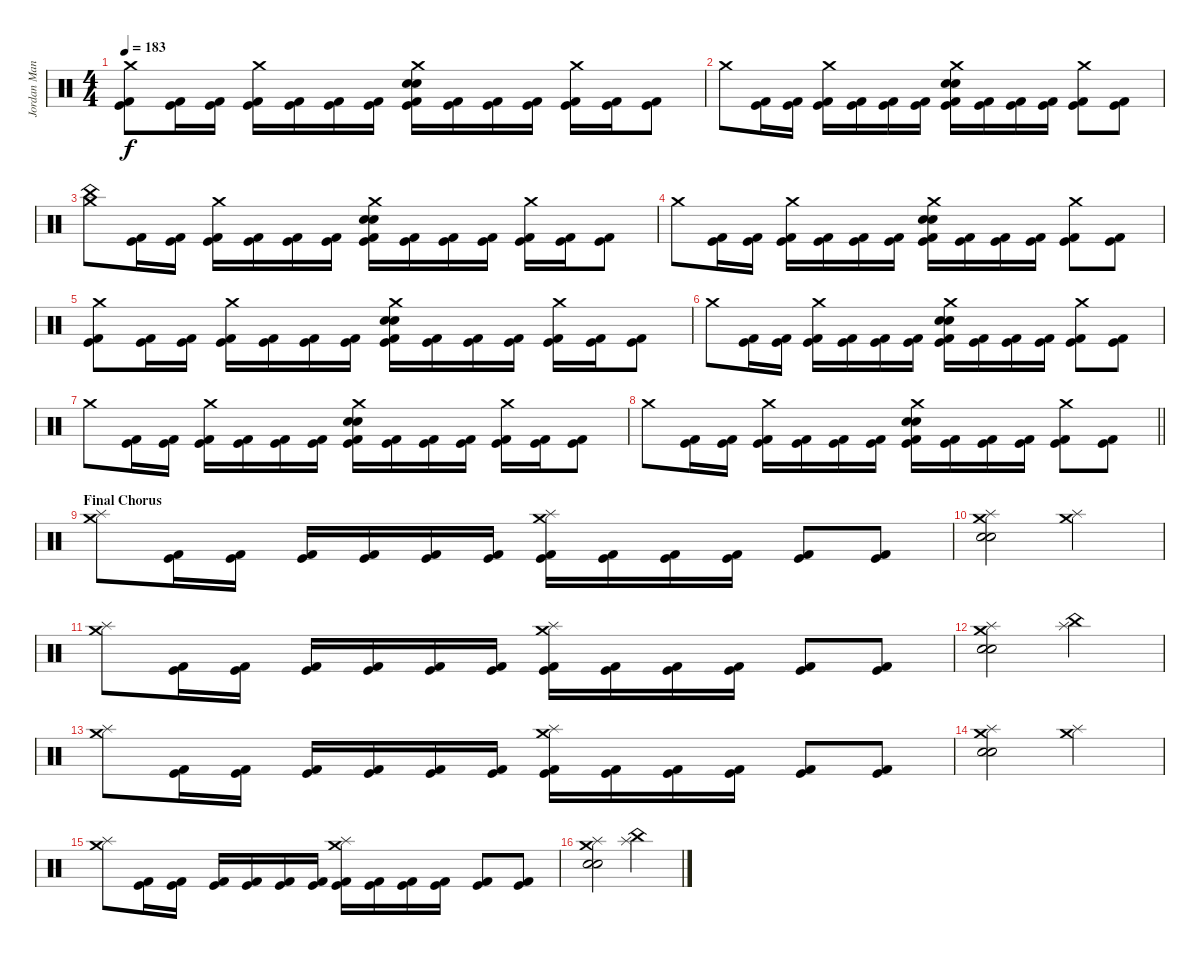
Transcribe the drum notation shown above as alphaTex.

\track ("Jordan Mancino" "Jordan Man") {instrument percussion}
\staff {score}
\articulation defaults
\ts (4 4)
\tempo 183
\clef neutral
\ks c
("Crash medium (hit)" "Kick (hit)" "Kick (hit) 2").8{dy f} ("Kick (hit)" "Kick (hit) 2").16 ("Kick (hit)" "Kick (hit) 2").16 ("Crash medium (hit)" "Kick (hit)" "Kick (hit) 2").16 ("Kick (hit)" "Kick (hit) 2").16 ("Kick (hit)" "Kick (hit) 2").16 ("Kick (hit)" "Kick (hit) 2").16 ("Crash medium (hit)" "Electric Snare (hit)" "Snare (hit) 2" "Kick (hit)" "Kick (hit) 2").16 ("Kick (hit)" "Kick (hit) 2").16 ("Kick (hit)" "Kick (hit) 2").16 ("Kick (hit)" "Kick (hit) 2").16 ("Crash medium (hit)" "Kick (hit)" "Kick (hit) 2").16 ("Kick (hit)" "Kick (hit) 2").16 ("Kick (hit)" "Kick (hit) 2").8 |
"Crash medium (hit)".8 ("Kick (hit)" "Kick (hit) 2").16 ("Kick (hit)" "Kick (hit) 2").16 ("Crash medium (hit)" "Kick (hit)" "Kick (hit) 2").16 ("Kick (hit)" "Kick (hit) 2").16 ("Kick (hit)" "Kick (hit) 2").16 ("Kick (hit)" "Kick (hit) 2").16 ("Crash medium (hit)" "Electric Snare (hit)" "Snare (hit) 2" "Kick (hit)" "Kick (hit) 2").16 ("Kick (hit)" "Kick (hit) 2").16 ("Kick (hit)" "Kick (hit) 2").16 ("Kick (hit)" "Kick (hit) 2").16 ("Crash medium (hit)" "Kick (hit)" "Kick (hit) 2").8 ("Kick (hit)" "Kick (hit) 2").8 |
("China (hit)" "Crash medium (hit)").8 ("Kick (hit)" "Kick (hit) 2").16 ("Kick (hit)" "Kick (hit) 2").16 ("Crash medium (hit)" "Kick (hit)" "Kick (hit) 2").16 ("Kick (hit)" "Kick (hit) 2").16 ("Kick (hit)" "Kick (hit) 2").16 ("Kick (hit)" "Kick (hit) 2").16 ("Crash medium (hit)" "Electric Snare (hit)" "Snare (hit) 2" "Kick (hit)" "Kick (hit) 2").16 ("Kick (hit)" "Kick (hit) 2").16 ("Kick (hit)" "Kick (hit) 2").16 ("Kick (hit)" "Kick (hit) 2").16 ("Crash medium (hit)" "Kick (hit)" "Kick (hit) 2").16 ("Kick (hit)" "Kick (hit) 2").16 ("Kick (hit)" "Kick (hit) 2").8 |
"Crash medium (hit)".8 ("Kick (hit)" "Kick (hit) 2").16 ("Kick (hit)" "Kick (hit) 2").16 ("Crash medium (hit)" "Kick (hit)" "Kick (hit) 2").16 ("Kick (hit)" "Kick (hit) 2").16 ("Kick (hit)" "Kick (hit) 2").16 ("Kick (hit)" "Kick (hit) 2").16 ("Crash medium (hit)" "Electric Snare (hit)" "Snare (hit) 2" "Kick (hit)" "Kick (hit) 2").16 ("Kick (hit)" "Kick (hit) 2").16 ("Kick (hit)" "Kick (hit) 2").16 ("Kick (hit)" "Kick (hit) 2").16 ("Crash medium (hit)" "Kick (hit)" "Kick (hit) 2").8 ("Kick (hit)" "Kick (hit) 2").8 |
("Crash medium (hit)" "Kick (hit)" "Kick (hit) 2").8 ("Kick (hit)" "Kick (hit) 2").16 ("Kick (hit)" "Kick (hit) 2").16 ("Crash medium (hit)" "Kick (hit)" "Kick (hit) 2").16 ("Kick (hit)" "Kick (hit) 2").16 ("Kick (hit)" "Kick (hit) 2").16 ("Kick (hit)" "Kick (hit) 2").16 ("Crash medium (hit)" "Electric Snare (hit)" "Snare (hit) 2" "Kick (hit)" "Kick (hit) 2").16 ("Kick (hit)" "Kick (hit) 2").16 ("Kick (hit)" "Kick (hit) 2").16 ("Kick (hit)" "Kick (hit) 2").16 ("Crash medium (hit)" "Kick (hit)" "Kick (hit) 2").16 ("Kick (hit)" "Kick (hit) 2").16 ("Kick (hit)" "Kick (hit) 2").8 |
"Crash medium (hit)".8 ("Kick (hit)" "Kick (hit) 2").16 ("Kick (hit)" "Kick (hit) 2").16 ("Crash medium (hit)" "Kick (hit)" "Kick (hit) 2").16 ("Kick (hit)" "Kick (hit) 2").16 ("Kick (hit)" "Kick (hit) 2").16 ("Kick (hit)" "Kick (hit) 2").16 ("Crash medium (hit)" "Electric Snare (hit)" "Snare (hit) 2" "Kick (hit)" "Kick (hit) 2").16 ("Kick (hit)" "Kick (hit) 2").16 ("Kick (hit)" "Kick (hit) 2").16 ("Kick (hit)" "Kick (hit) 2").16 ("Crash medium (hit)" "Kick (hit)" "Kick (hit) 2").8 ("Kick (hit)" "Kick (hit) 2").8 |
"Crash medium (hit)".8 ("Kick (hit)" "Kick (hit) 2").16 ("Kick (hit)" "Kick (hit) 2").16 ("Crash medium (hit)" "Kick (hit)" "Kick (hit) 2").16 ("Kick (hit)" "Kick (hit) 2").16 ("Kick (hit)" "Kick (hit) 2").16 ("Kick (hit)" "Kick (hit) 2").16 ("Crash medium (hit)" "Electric Snare (hit)" "Snare (hit) 2" "Kick (hit)" "Kick (hit) 2").16 ("Kick (hit)" "Kick (hit) 2").16 ("Kick (hit)" "Kick (hit) 2").16 ("Kick (hit)" "Kick (hit) 2").16 ("Crash medium (hit)" "Kick (hit)" "Kick (hit) 2").16 ("Kick (hit)" "Kick (hit) 2").16 ("Kick (hit)" "Kick (hit) 2").8 |
\barLineRight lightlight "Crash medium (hit)".8
("Kick (hit)" "Kick (hit) 2").16 ("Kick (hit)" "Kick (hit) 2").16 ("Crash medium (hit)" "Kick (hit)" "Kick (hit) 2").16 ("Kick (hit)" "Kick (hit) 2").16 ("Kick (hit)" "Kick (hit) 2").16 ("Kick (hit)" "Kick (hit) 2").16 ("Crash medium (hit)" "Electric Snare (hit)" "Snare (hit) 2" "Kick (hit)" "Kick (hit) 2").16 ("Kick (hit)" "Kick (hit) 2").16 ("Kick (hit)" "Kick (hit) 2").16 ("Kick (hit)" "Kick (hit) 2").16 ("Crash medium (hit)" "Kick (hit)" "Kick (hit) 2").8 ("Kick (hit)" "Kick (hit) 2").8 |
\section ("" "Final Chorus")
("Crash medium (hit)" "Splash (hit)").8 ("Kick (hit)" "Kick (hit) 2").16 ("Kick (hit)" "Kick (hit) 2").16 ("Kick (hit)" "Kick (hit) 2").16 ("Kick (hit)" "Kick (hit) 2").16 ("Kick (hit)" "Kick (hit) 2").16 ("Kick (hit)" "Kick (hit) 2").16 ("Crash medium (hit)" "Splash (hit)" "Kick (hit)" "Kick (hit) 2").16 ("Kick (hit)" "Kick (hit) 2").16 ("Kick (hit)" "Kick (hit) 2").16 ("Kick (hit)" "Kick (hit) 2").16 ("Kick (hit)" "Kick (hit) 2").8 ("Kick (hit)" "Kick (hit) 2").8 |
("Crash medium (hit)" "Splash (hit)" "Electric Snare (hit)" "Snare (hit) 2").2 ("Crash medium (hit)" "Splash (hit)").2 |
("Crash medium (hit)" "Splash (hit)").8 ("Kick (hit)" "Kick (hit) 2").16 ("Kick (hit)" "Kick (hit) 2").16 ("Kick (hit)" "Kick (hit) 2").16 ("Kick (hit)" "Kick (hit) 2").16 ("Kick (hit)" "Kick (hit) 2").16 ("Kick (hit)" "Kick (hit) 2").16 ("Crash medium (hit)" "Splash (hit)" "Kick (hit)" "Kick (hit) 2").16 ("Kick (hit)" "Kick (hit) 2").16 ("Kick (hit)" "Kick (hit) 2").16 ("Kick (hit)" "Kick (hit) 2").16 ("Kick (hit)" "Kick (hit) 2").8 ("Kick (hit)" "Kick (hit) 2").8 |
("Crash medium (hit)" "Splash (hit)" "Electric Snare (hit)" "Snare (hit) 2").2 ("China (hit)" "Splash (hit)").2 |
("Crash medium (hit)" "Splash (hit)").8 ("Kick (hit)" "Kick (hit) 2").16 ("Kick (hit)" "Kick (hit) 2").16 ("Kick (hit)" "Kick (hit) 2").16 ("Kick (hit)" "Kick (hit) 2").16 ("Kick (hit)" "Kick (hit) 2").16 ("Kick (hit)" "Kick (hit) 2").16 ("Crash medium (hit)" "Splash (hit)" "Kick (hit)" "Kick (hit) 2").16 ("Kick (hit)" "Kick (hit) 2").16 ("Kick (hit)" "Kick (hit) 2").16 ("Kick (hit)" "Kick (hit) 2").16 ("Kick (hit)" "Kick (hit) 2").8 ("Kick (hit)" "Kick (hit) 2").8 |
("Crash medium (hit)" "Splash (hit)" "Electric Snare (hit)" "Snare (hit) 2").2 ("Crash medium (hit)" "Splash (hit)").2 |
("Crash medium (hit)" "Splash (hit)").8 ("Kick (hit)" "Kick (hit) 2").16 ("Kick (hit)" "Kick (hit) 2").16 ("Kick (hit)" "Kick (hit) 2").16 ("Kick (hit)" "Kick (hit) 2").16 ("Kick (hit)" "Kick (hit) 2").16 ("Kick (hit)" "Kick (hit) 2").16 ("Crash medium (hit)" "Splash (hit)" "Kick (hit)" "Kick (hit) 2").16 ("Kick (hit)" "Kick (hit) 2").16 ("Kick (hit)" "Kick (hit) 2").16 ("Kick (hit)" "Kick (hit) 2").16 ("Kick (hit)" "Kick (hit) 2").8 ("Kick (hit)" "Kick (hit) 2").8 |
("Crash medium (hit)" "Splash (hit)" "Electric Snare (hit)" "Snare (hit) 2").2 ("China (hit)" "Splash (hit)").2
